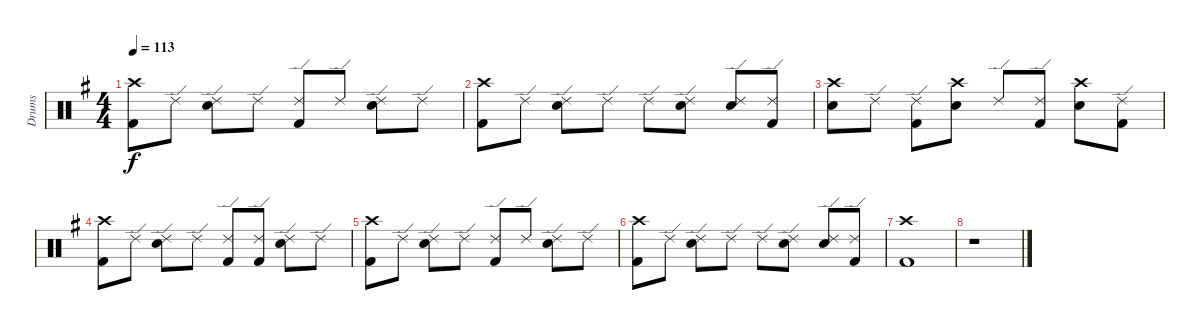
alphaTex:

\track ("Drums" "Drums") {instrument percussion}
\staff {score}
\articulation defaults
\ts (4 4)
\tempo 113
\clef neutral
\ks g
("Crash high (hit)" "Kick (hit) 2").8{dy f} "Ride (edge) 2".8 ("Ride (edge) 2" "Electric Snare (hit)").8 "Ride (edge) 2".8 ("Ride (edge) 2" "Kick (hit) 2").8 "Ride (edge) 2".8 ("Ride (edge) 2" "Electric Snare (hit)").8 "Ride (edge) 2".8 |
("Crash high (hit)" "Kick (hit) 2").8 "Ride (edge) 2".8 ("Ride (edge) 2" "Electric Snare (hit)").8 "Ride (edge) 2".8 "Ride (edge) 2".8 ("Ride (edge) 2" "Electric Snare (hit)").8 ("Ride (edge) 2" "Electric Snare (hit)").8 ("Ride (edge) 2" "Kick (hit) 2").8 |
("Crash high (hit)" "Electric Snare (hit)").8 "Ride (edge) 2".8 ("Ride (edge) 2" "Kick (hit) 2").8 ("Crash high (hit)" "Electric Snare (hit)").8 "Ride (edge) 2".8 ("Ride (edge) 2" "Kick (hit) 2").8 ("Crash high (hit)" "Electric Snare (hit)").8 ("Ride (edge) 2" "Kick (hit) 2").8 |
("Crash high (hit)" "Kick (hit) 2").8 "Ride (edge) 2".8 ("Ride (edge) 2" "Electric Snare (hit)").8 "Ride (edge) 2".8 ("Ride (edge) 2" "Kick (hit) 2").8 ("Ride (edge) 2" "Kick (hit) 2").8 ("Ride (edge) 2" "Electric Snare (hit)").8 "Ride (edge) 2".8 |
("Crash high (hit)" "Kick (hit) 2").8 "Ride (edge) 2".8 ("Ride (edge) 2" "Electric Snare (hit)").8 "Ride (edge) 2".8 ("Ride (edge) 2" "Kick (hit) 2").8 "Ride (edge) 2".8 ("Ride (edge) 2" "Electric Snare (hit)").8 "Ride (edge) 2".8 |
("Crash high (hit)" "Kick (hit) 2").8 "Ride (edge) 2".8 ("Ride (edge) 2" "Electric Snare (hit)").8 "Ride (edge) 2".8 "Ride (edge) 2".8 ("Ride (edge) 2" "Electric Snare (hit)").8 ("Ride (edge) 2" "Electric Snare (hit)").8 ("Ride (edge) 2" "Kick (hit) 2").8 |
("Crash high (hit)" "Kick (hit) 2").1 |
r.1
